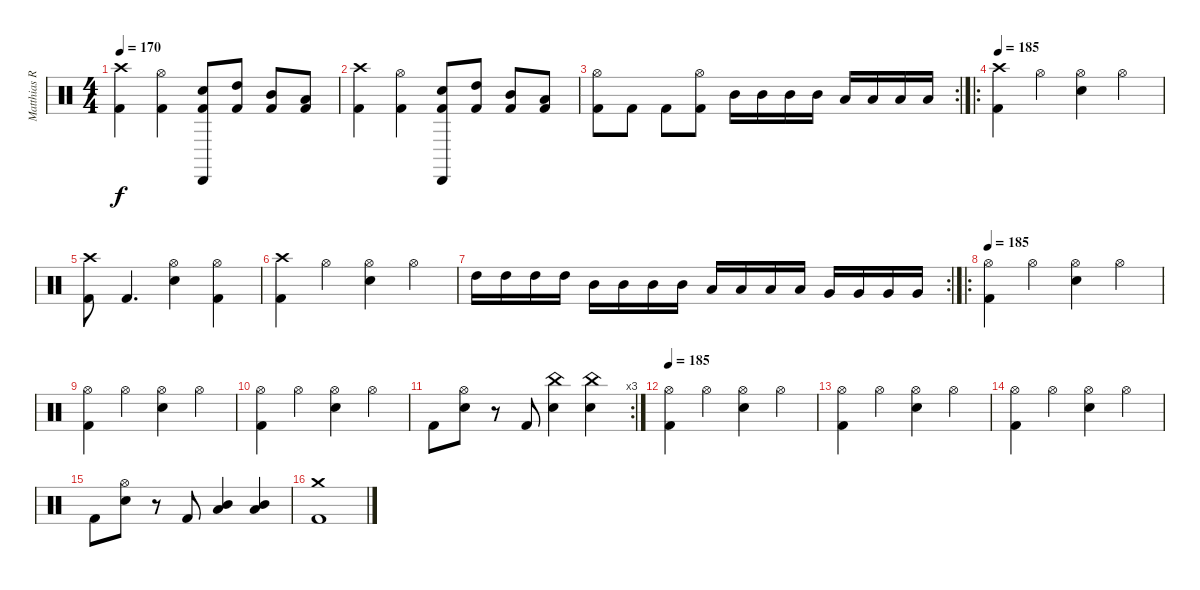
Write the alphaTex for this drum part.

\track ("Matthias Rodig" "Matthias R") {instrument percussion}
\staff {score}
\articulation defaults
\ts (4 4)
\tempo 170
\clef neutral
\ks c
("Kick (hit) 2" "Crash high (hit)").4{dy f} ("Kick (hit) 2" "Hi-Hat (open)").4 ("Kick (hit) 2" "Electric Snare (hit)" "Cabasa (hit)").8 ("Kick (hit) 2" "High Tom (hit)").8 ("Kick (hit) 2" "Mid Tom (hit)").8 ("Kick (hit) 2" "Low Tom (hit)").8 |
("Kick (hit) 2" "Crash high (hit)").4 ("Kick (hit) 2" "Hi-Hat (open)").4 ("Kick (hit) 2" "Electric Snare (hit)" "Cabasa (hit)").8 ("Kick (hit) 2" "High Tom (hit)").8 ("Kick (hit) 2" "Mid Tom (hit)").8 ("Kick (hit) 2" "Low Tom (hit)").8 |
\rc 2
("Kick (hit) 2" "Hi-Hat (open)").8 "Kick (hit) 2".8 "Kick (hit) 2".8 ("Kick (hit) 2" "Hi-Hat (open)").8 "Mid Tom (hit)".16 "Mid Tom (hit)".16 "Mid Tom (hit)".16 "Mid Tom (hit)".16 "Low Tom (hit)".16 "Low Tom (hit)".16 "Low Tom (hit)".16 "Low Tom (hit)".16 |
\ro
\tempo 185
("Kick (hit) 2" "Crash high (hit)").4 "Hi-Hat (open)".4 ("Electric Snare (hit)" "Hi-Hat (open)").4 "Hi-Hat (open)".4 |
("Kick (hit) 2" "Crash high (hit)").8 "Kick (hit) 2".4{d} ("Electric Snare (hit)" "Hi-Hat (open)").4 ("Kick (hit) 2" "Hi-Hat (open)").4 |
("Kick (hit) 2" "Crash high (hit)").4 "Hi-Hat (open)".4 ("Electric Snare (hit)" "Hi-Hat (open)").4 "Hi-Hat (open)".4 |
\rc 2 "High Tom (hit)".16 "High Tom (hit)".16 "High Tom (hit)".16 "High Tom (hit)".16 "Mid Tom (hit)".16 "Mid Tom (hit)".16 "Mid Tom (hit)".16 "Mid Tom (hit)".16 "Low Tom (hit)".16 "Low Tom (hit)".16 "Low Tom (hit)".16 "Low Tom (hit)".16 "Very Low Tom (hit)".16 "Very Low Tom (hit)".16 "Very Low Tom (hit)".16 "Very Low Tom (hit)".16
|
\ro
\tempo 185
("Kick (hit) 2" "Hi-Hat (open)").4{volume 13} "Hi-Hat (open)".4 ("Electric Snare (hit)" "Hi-Hat (open)").4 "Hi-Hat (open)".4 |
("Kick (hit) 2" "Hi-Hat (open)").4 "Hi-Hat (open)".4 ("Electric Snare (hit)" "Hi-Hat (open)").4 "Hi-Hat (open)".4 |
("Kick (hit) 2" "Hi-Hat (open)").4 "Hi-Hat (open)".4 ("Electric Snare (hit)" "Hi-Hat (open)").4 "Hi-Hat (open)".4 |
\rc 3 "Kick (hit) 2".8
("Electric Snare (hit)" "Hi-Hat (open)").8 r.8 "Kick (hit) 2".8 ("Electric Snare (hit)" "China (hit)").4 ("Electric Snare (hit)" "China (hit)").4 |
\tempo 185
("Kick (hit) 2" "Hi-Hat (open)").4 "Hi-Hat (open)".4 ("Electric Snare (hit)" "Hi-Hat (open)").4 "Hi-Hat (open)".4 |
("Kick (hit) 2" "Hi-Hat (open)").4 "Hi-Hat (open)".4 ("Electric Snare (hit)" "Hi-Hat (open)").4 "Hi-Hat (open)".4 |
("Kick (hit) 2" "Hi-Hat (open)").4 "Hi-Hat (open)".4 ("Electric Snare (hit)" "Hi-Hat (open)").4 "Hi-Hat (open)".4 |
"Kick (hit) 2".8 ("Electric Snare (hit)" "Hi-Hat (open)").8 r.8 "Kick (hit) 2".8 ("Mid Tom (hit)" "Low Tom (hit)").4{bu 120} ("Mid Tom (hit)" "Low Tom (hit)").4{bu 120} |
("Kick (hit) 2" "Crash medium (hit)").1
